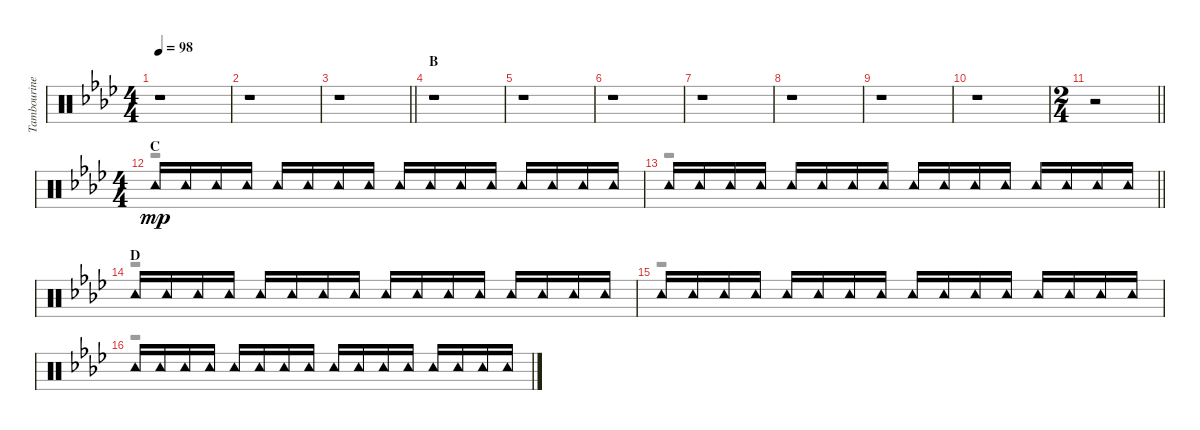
\track ("Tambourine" "Tambourine") {instrument percussion}
\staff {score}
\articulation defaults
\voice
\ts (4 4)
\tempo 98
\clef neutral
\ks ab
r.1{dy mp} |
r.1 |
\barLineRight lightlight
r.1 |
\section ("" "B")
r.1 |
r.1 |
r.1 |
r.1 |
r.1 |
r.1 |
r.1 |
\ts (2 4)
\barLineRight lightlight
r.2 |
\ts (4 4)
\section ("" "C")
"Tambourine (hit)".16 "Tambourine (hit)".16 "Tambourine (hit)".16 "Tambourine (hit)".16 "Tambourine (hit)".16 "Tambourine (hit)".16 "Tambourine (hit)".16 "Tambourine (hit)".16 "Tambourine (hit)".16 "Tambourine (hit)".16 "Tambourine (hit)".16 "Tambourine (hit)".16 "Tambourine (hit)".16 "Tambourine (hit)".16 "Tambourine (hit)".16 "Tambourine (hit)".16 |
\barLineRight lightlight "Tambourine (hit)".16 "Tambourine (hit)".16 "Tambourine (hit)".16 "Tambourine (hit)".16 "Tambourine (hit)".16 "Tambourine (hit)".16 "Tambourine (hit)".16 "Tambourine (hit)".16 "Tambourine (hit)".16 "Tambourine (hit)".16 "Tambourine (hit)".16 "Tambourine (hit)".16 "Tambourine (hit)".16 "Tambourine (hit)".16 "Tambourine (hit)".16 "Tambourine (hit)".16
|
\section ("" "D")
"Tambourine (hit)".16 "Tambourine (hit)".16 "Tambourine (hit)".16 "Tambourine (hit)".16 "Tambourine (hit)".16 "Tambourine (hit)".16 "Tambourine (hit)".16 "Tambourine (hit)".16 "Tambourine (hit)".16 "Tambourine (hit)".16 "Tambourine (hit)".16 "Tambourine (hit)".16 "Tambourine (hit)".16 "Tambourine (hit)".16 "Tambourine (hit)".16 "Tambourine (hit)".16 |
"Tambourine (hit)".16 "Tambourine (hit)".16 "Tambourine (hit)".16 "Tambourine (hit)".16 "Tambourine (hit)".16 "Tambourine (hit)".16 "Tambourine (hit)".16 "Tambourine (hit)".16 "Tambourine (hit)".16 "Tambourine (hit)".16 "Tambourine (hit)".16 "Tambourine (hit)".16 "Tambourine (hit)".16 "Tambourine (hit)".16 "Tambourine (hit)".16 "Tambourine (hit)".16 |
"Tambourine (hit)".16 "Tambourine (hit)".16 "Tambourine (hit)".16 "Tambourine (hit)".16 "Tambourine (hit)".16 "Tambourine (hit)".16 "Tambourine (hit)".16 "Tambourine (hit)".16 "Tambourine (hit)".16 "Tambourine (hit)".16 "Tambourine (hit)".16 "Tambourine (hit)".16 "Tambourine (hit)".16 "Tambourine (hit)".16 "Tambourine (hit)".16 "Tambourine (hit)".16
\voice
\clef neutral
\ottava regular
\simile none
\ks ab
r.1{dy f} |
r.1 |
\barLineRight lightlight
r.1 |
r.1 |
r.1 |
r.1 |
r.1 |
r.1 |
r.1 |
r.1 |
\barLineRight lightlight
r.2 |
r.1 |
\barLineRight lightlight
r.1 |
r.1 |
r.1 |
r.1
